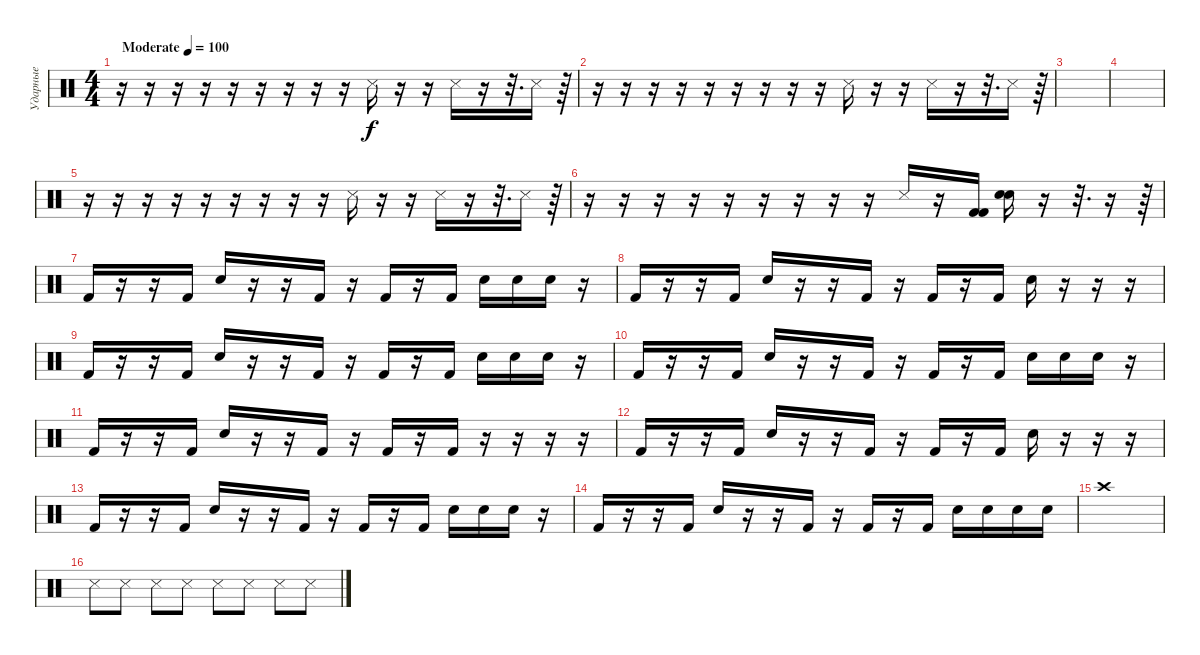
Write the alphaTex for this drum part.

\track ("Ударные" "Ударные") {instrument percussion}
\staff {score}
\articulation defaults
\ts (4 4)
\tempo (100 "Moderate")
\clef neutral
\ks c
r.16{dy f} r.16 r.16 r.16 r.16 r.16 r.16 r.16 r.16 "Snare (side stick) 3".16 r.16 r.16 "Snare (side stick) 3".16 r.16 r.32{d} "Snare (side stick) 3".16 r.64 |
r.16 r.16 r.16 r.16 r.16 r.16 r.16 r.16 r.16 "Snare (side stick) 3".16 r.16 r.16 "Snare (side stick) 3".16 r.16 r.32{d} "Snare (side stick) 3".16 r.64 |
|
|
r.16 r.16 r.16 r.16 r.16 r.16 r.16 r.16 r.16 "Snare (side stick) 3".16 r.16 r.16 "Snare (side stick) 3".16 r.16 r.32{d} "Snare (side stick) 3".16 r.64 |
r.16 r.16 r.16 r.16 r.16 r.16 r.16 r.16 r.16 "Snare (side stick) 3".16 r.16 ("Kick (hit) 2" "Kick (hit) 2").16 ("Electric Snare (hit)" "Electric Snare (hit)").16 r.16 r.32{d} r.16 r.64 |
"Kick (hit) 2".16 r.16 r.16 "Kick (hit) 2".16 "Electric Snare (hit)".16 r.16 r.16 "Kick (hit) 2".16 r.16 "Kick (hit) 2".16 r.16 "Kick (hit) 2".16 "Electric Snare (hit)".16 "Electric Snare (hit)".16 "Electric Snare (hit)".16 r.16 |
"Kick (hit) 2".16 r.16 r.16 "Kick (hit) 2".16 "Electric Snare (hit)".16 r.16 r.16 "Kick (hit) 2".16 r.16 "Kick (hit) 2".16 r.16 "Kick (hit) 2".16 "Electric Snare (hit)".16 r.16 r.16 r.16 |
"Kick (hit) 2".16 r.16 r.16 "Kick (hit) 2".16 "Electric Snare (hit)".16 r.16 r.16 "Kick (hit) 2".16 r.16 "Kick (hit) 2".16 r.16 "Kick (hit) 2".16 "Electric Snare (hit)".16 "Electric Snare (hit)".16 "Electric Snare (hit)".16 r.16 |
"Kick (hit) 2".16 r.16 r.16 "Kick (hit) 2".16 "Electric Snare (hit)".16 r.16 r.16 "Kick (hit) 2".16 r.16 "Kick (hit) 2".16 r.16 "Kick (hit) 2".16 "Electric Snare (hit)".16 "Electric Snare (hit)".16 "Electric Snare (hit)".16 r.16 |
"Kick (hit) 2".16 r.16 r.16 "Kick (hit) 2".16 "Electric Snare (hit)".16 r.16 r.16 "Kick (hit) 2".16 r.16 "Kick (hit) 2".16 r.16 "Kick (hit) 2".16 r.16 r.16 r.16 r.16 |
"Kick (hit) 2".16 r.16 r.16 "Kick (hit) 2".16 "Electric Snare (hit)".16 r.16 r.16 "Kick (hit) 2".16 r.16 "Kick (hit) 2".16 r.16 "Kick (hit) 2".16 "Electric Snare (hit)".16 r.16 r.16 r.16 |
"Kick (hit) 2".16 r.16 r.16 "Kick (hit) 2".16 "Electric Snare (hit)".16 r.16 r.16 "Kick (hit) 2".16 r.16 "Kick (hit) 2".16 r.16 "Kick (hit) 2".16 "Electric Snare (hit)".16 "Electric Snare (hit)".16 "Electric Snare (hit)".16 r.16 |
"Kick (hit) 2".16 r.16 r.16 "Kick (hit) 2".16 "Electric Snare (hit)".16 r.16 r.16 "Kick (hit) 2".16 r.16 "Kick (hit) 2".16 r.16 "Kick (hit) 2".16 "Electric Snare (hit)".16 "Electric Snare (hit)".16 "Electric Snare (hit)".16 "Electric Snare (hit)".16 |
"Crash high (hit)".1 |
"Snare (side stick) 3".8 "Snare (side stick) 3".8 "Snare (side stick) 3".8 "Snare (side stick) 3".8 "Snare (side stick) 3".8 "Snare (side stick) 3".8 "Snare (side stick) 3".8 "Snare (side stick) 3".8
